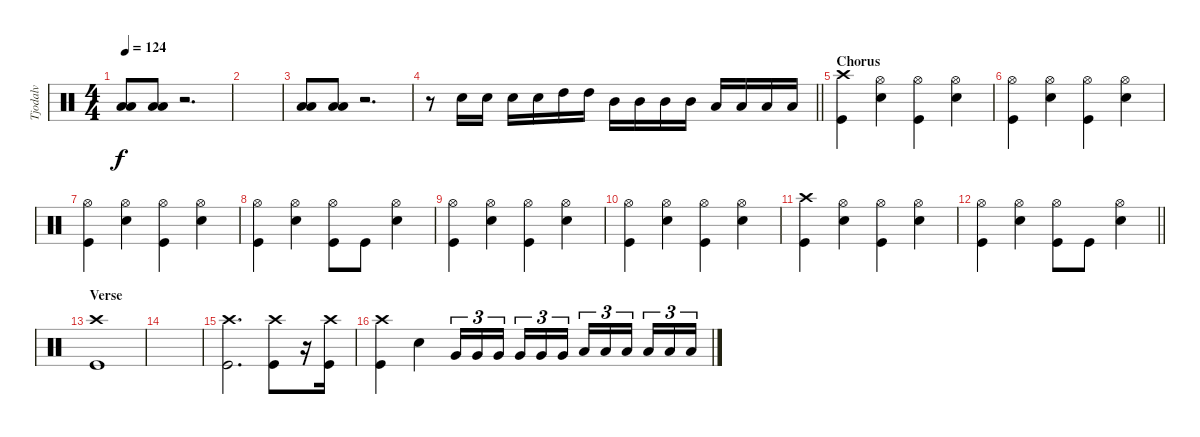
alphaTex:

\track ("Tjodalv" "Tjodalv") {instrument percussion}
\staff {score}
\articulation defaults
\ts (4 4)
\tempo 124
\clef neutral
\ks c
("Low Tom (hit)" "Low Floor Tom (hit)").8{dy f} ("Low Tom (hit)" "Low Floor Tom (hit)").8 r.2{d} |
|
("Low Tom (hit)" "Low Floor Tom (hit)").8 ("Low Tom (hit)" "Low Floor Tom (hit)").8 r.2{d} |
\barLineRight lightlight
r.8 "Snare (hit) 2".16 "Snare (hit) 2".16 "Snare (hit) 2".16 "Snare (hit) 2".16 "High Tom (hit)".16 "High Tom (hit)".16 "Mid Tom (hit)".16 "Mid Tom (hit)".16 "Mid Tom (hit)".16 "Mid Tom (hit)".16 "Low Tom (hit)".16 "Low Tom (hit)".16 "Low Tom (hit)".16 "Low Tom (hit)".16 |
\section ("" "Chorus")
("Crash high (hit)" "Kick (hit)").4 ("Snare (hit) 2" "Hi-Hat (open)").4 ("Kick (hit)" "Hi-Hat (open)").4 ("Snare (hit) 2" "Hi-Hat (open)").4 |
("Kick (hit)" "Hi-Hat (open)").4 ("Snare (hit) 2" "Hi-Hat (open)").4 ("Kick (hit)" "Hi-Hat (open)").4 ("Snare (hit) 2" "Hi-Hat (open)").4 |
("Kick (hit)" "Hi-Hat (open)").4 ("Snare (hit) 2" "Hi-Hat (open)").4 ("Kick (hit)" "Hi-Hat (open)").4 ("Snare (hit) 2" "Hi-Hat (open)").4 |
("Kick (hit)" "Hi-Hat (open)").4 ("Snare (hit) 2" "Hi-Hat (open)").4 ("Kick (hit)" "Hi-Hat (open)").8 "Kick (hit)".8 ("Snare (hit) 2" "Hi-Hat (open)").4 |
("Kick (hit)" "Hi-Hat (open)").4 ("Snare (hit) 2" "Hi-Hat (open)").4 ("Kick (hit)" "Hi-Hat (open)").4 ("Snare (hit) 2" "Hi-Hat (open)").4 |
("Kick (hit)" "Hi-Hat (open)").4 ("Snare (hit) 2" "Hi-Hat (open)").4 ("Kick (hit)" "Hi-Hat (open)").4 ("Snare (hit) 2" "Hi-Hat (open)").4 |
("Crash high (hit)" "Kick (hit)").4 ("Snare (hit) 2" "Hi-Hat (open)").4 ("Kick (hit)" "Hi-Hat (open)").4 ("Snare (hit) 2" "Hi-Hat (open)").4 |
\barLineRight lightlight
("Kick (hit)" "Hi-Hat (open)").4 ("Snare (hit) 2" "Hi-Hat (open)").4 ("Kick (hit)" "Hi-Hat (open)").8 "Kick (hit)".8 ("Snare (hit) 2" "Hi-Hat (open)").4 |
\section ("" "Verse")
("Crash high (hit)" "Kick (hit)").1 |
|
("Crash high (hit)" "Kick (hit)").2{d} ("Crash high (hit)" "Kick (hit)").8 r.16 ("Crash high (hit)" "Kick (hit)").16 |
("Crash high (hit)" "Kick (hit)").4 "Snare (hit) 2".4 "Very Low Tom (hit)".16{tu (3 2)} "Very Low Tom (hit)".16{tu (3 2)} "Very Low Tom (hit)".16{tu (3 2) beam splitsecondary} "Very Low Tom (hit)".16{tu (3 2)} "Very Low Tom (hit)".16{tu (3 2)} "Very Low Tom (hit)".16{tu (3 2)} "Low Floor Tom (hit)".16{tu (3 2)} "Low Floor Tom (hit)".16{tu (3 2)} "Low Floor Tom (hit)".16{tu (3 2) beam splitsecondary} "Low Floor Tom (hit)".16{tu (3 2)} "Low Floor Tom (hit)".16{tu (3 2)} "Low Floor Tom (hit)".16{tu (3 2)}
